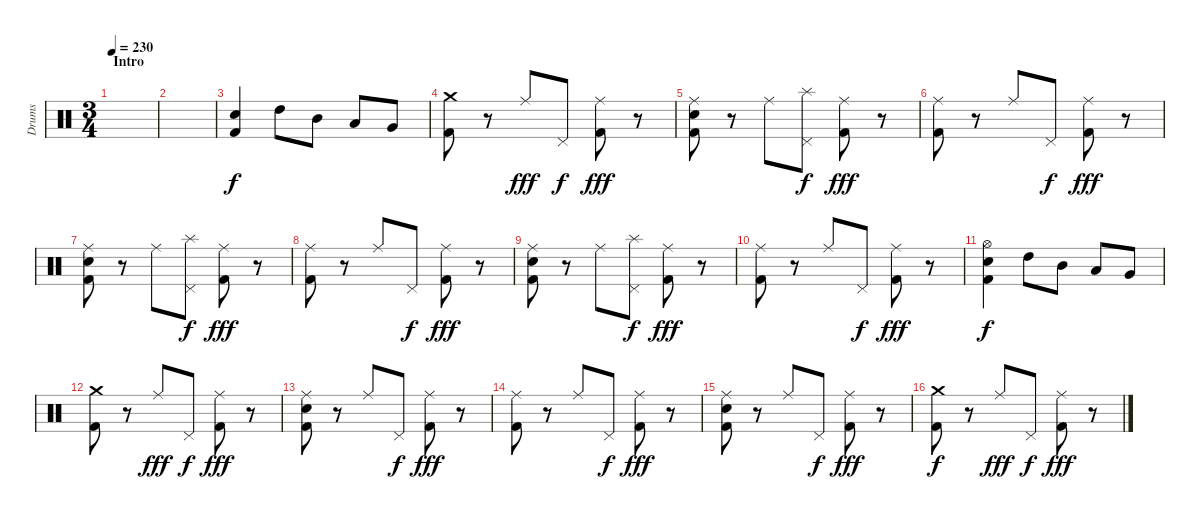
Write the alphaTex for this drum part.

\track ("Drums" "Drums") {instrument percussion}
\staff {score}
\articulation defaults
\ts (3 4)
\section ("" "Intro")
\tempo 230
\clef neutral
\ks c
|
|
("Electric Snare (hit)" "Kick (hit) 2").4 "High Tom (hit)".8 "Mid Tom (hit)".8 "Low Tom (hit)".8 "Very Low Tom (hit)".8 |
("Crash medium (hit)" "Kick (hit) 2").8 r.8 "Ride (middle)".8{dy fff} "Pedal Hi-Hat (hit)".8{dy f} ("Ride (middle)" "Kick (hit) 2").8{dy fff} r.8 |
("Ride (middle)" "Electric Snare (hit)" "Kick (hit) 2").8 r.8 "Ride (middle)".8 ("Splash (hit)" "Pedal Hi-Hat (hit)").8{dy f} ("Ride (middle)" "Kick (hit) 2").8{dy fff} r.8 |
("Ride (middle)" "Kick (hit) 2").8 r.8 "Ride (middle)".8 "Pedal Hi-Hat (hit)".8{dy f} ("Ride (middle)" "Kick (hit) 2").8{dy fff} r.8 |
("Ride (middle)" "Electric Snare (hit)" "Kick (hit) 2").8 r.8 "Ride (middle)".8 ("Splash (hit)" "Pedal Hi-Hat (hit)").8{dy f} ("Ride (middle)" "Kick (hit) 2").8{dy fff} r.8 |
("Ride (middle)" "Kick (hit) 2").8 r.8 "Ride (middle)".8 "Pedal Hi-Hat (hit)".8{dy f} ("Ride (middle)" "Kick (hit) 2").8{dy fff} r.8 |
("Ride (middle)" "Electric Snare (hit)" "Kick (hit) 2").8 r.8 "Ride (middle)".8 ("Splash (hit)" "Pedal Hi-Hat (hit)").8{dy f} ("Ride (middle)" "Kick (hit) 2").8{dy fff} r.8 |
("Ride (middle)" "Kick (hit) 2").8 r.8 "Ride (middle)".8 "Pedal Hi-Hat (hit)".8{dy f} ("Ride (middle)" "Kick (hit) 2").8{dy fff} r.8 |
("Hi-Hat (open)" "Electric Snare (hit)" "Kick (hit) 2").4{dy f} "High Tom (hit)".8 "Mid Tom (hit)".8 "Low Tom (hit)".8 "Very Low Tom (hit)".8 |
("Crash medium (hit)" "Kick (hit) 2").8 r.8 "Ride (middle)".8{dy fff} "Pedal Hi-Hat (hit)".8{dy f} ("Ride (middle)" "Kick (hit) 2").8{dy fff} r.8 |
("Ride (middle)" "Electric Snare (hit)" "Kick (hit) 2").8 r.8 "Ride (middle)".8 "Pedal Hi-Hat (hit)".8{dy f} ("Ride (middle)" "Kick (hit) 2").8{dy fff} r.8 |
("Ride (middle)" "Kick (hit) 2").8 r.8 "Ride (middle)".8 "Pedal Hi-Hat (hit)".8{dy f} ("Ride (middle)" "Kick (hit) 2").8{dy fff} r.8 |
("Ride (middle)" "Electric Snare (hit)" "Kick (hit) 2").8 r.8 "Ride (middle)".8 "Pedal Hi-Hat (hit)".8{dy f} ("Ride (middle)" "Kick (hit) 2").8{dy fff} r.8 |
("Crash medium (hit)" "Kick (hit) 2").8{dy f} r.8 "Ride (middle)".8{dy fff} "Pedal Hi-Hat (hit)".8{dy f} ("Ride (middle)" "Kick (hit) 2").8{dy fff} r.8
